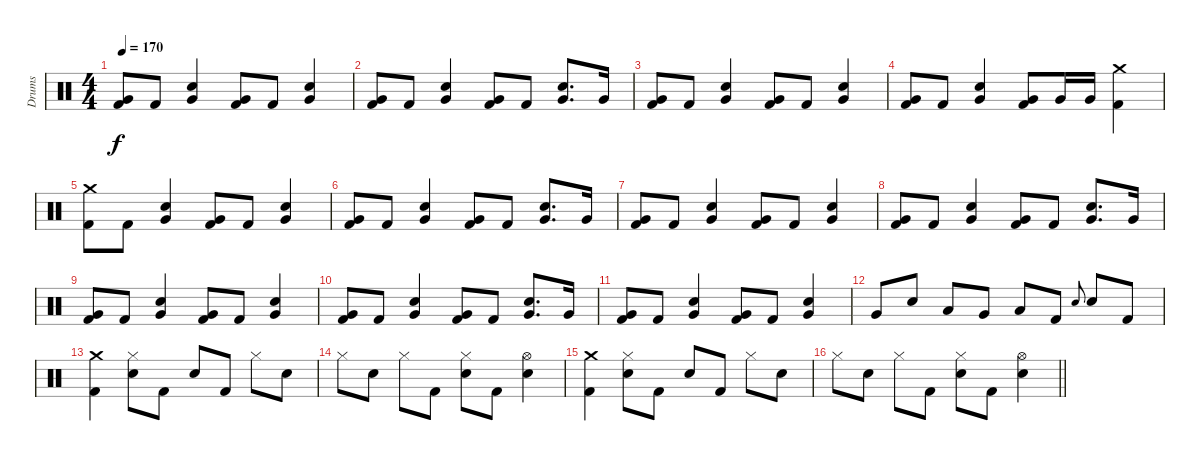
\track ("Drums" "Drums") {instrument percussion}
\staff {score}
\articulation defaults
\ts (4 4)
\tempo 170
\clef neutral
\ks c
("Very Low Tom (hit)" "Kick (hit) 2").8{dy f} "Kick (hit) 2".8 ("Snare (hit) 2" "Very Low Tom (hit)").4 ("Very Low Tom (hit)" "Kick (hit) 2").8 "Kick (hit) 2".8 ("Snare (hit) 2" "Very Low Tom (hit)").4 |
("Very Low Tom (hit)" "Kick (hit) 2").8 "Kick (hit) 2".8 ("Snare (hit) 2" "Very Low Tom (hit)").4 ("Very Low Tom (hit)" "Kick (hit) 2").8 "Kick (hit) 2".8 ("Snare (hit) 2" "Very Low Tom (hit)").8{d} "Very Low Tom (hit)".16 |
("Very Low Tom (hit)" "Kick (hit) 2").8 "Kick (hit) 2".8 ("Snare (hit) 2" "Very Low Tom (hit)").4 ("Very Low Tom (hit)" "Kick (hit) 2").8 "Kick (hit) 2".8 ("Snare (hit) 2" "Very Low Tom (hit)").4 |
("Very Low Tom (hit)" "Kick (hit) 2").8 "Kick (hit) 2".8 ("Snare (hit) 2" "Very Low Tom (hit)").4 ("Very Low Tom (hit)" "Kick (hit) 2").8 "Very Low Tom (hit)".16 "Very Low Tom (hit)".16 ("Crash medium (hit)" "Kick (hit) 2").4 |
("Crash medium (hit)" "Kick (hit) 2").8 "Kick (hit) 2".8 ("Snare (hit) 2" "Very Low Tom (hit)").4 ("Very Low Tom (hit)" "Kick (hit) 2").8 "Kick (hit) 2".8 ("Snare (hit) 2" "Very Low Tom (hit)").4 |
("Very Low Tom (hit)" "Kick (hit) 2").8 "Kick (hit) 2".8 ("Snare (hit) 2" "Very Low Tom (hit)").4 ("Very Low Tom (hit)" "Kick (hit) 2").8 "Kick (hit) 2".8 ("Snare (hit) 2" "Very Low Tom (hit)").8{d} "Very Low Tom (hit)".16 |
("Very Low Tom (hit)" "Kick (hit) 2").8 "Kick (hit) 2".8 ("Snare (hit) 2" "Very Low Tom (hit)").4 ("Very Low Tom (hit)" "Kick (hit) 2").8 "Kick (hit) 2".8 ("Snare (hit) 2" "Very Low Tom (hit)").4 |
("Very Low Tom (hit)" "Kick (hit) 2").8 "Kick (hit) 2".8 ("Snare (hit) 2" "Very Low Tom (hit)").4 ("Very Low Tom (hit)" "Kick (hit) 2").8 "Kick (hit) 2".8 ("Snare (hit) 2" "Very Low Tom (hit)").8{d} "Very Low Tom (hit)".16 |
("Very Low Tom (hit)" "Kick (hit) 2").8 "Kick (hit) 2".8 ("Snare (hit) 2" "Very Low Tom (hit)").4 ("Very Low Tom (hit)" "Kick (hit) 2").8 "Kick (hit) 2".8 ("Snare (hit) 2" "Very Low Tom (hit)").4 |
("Very Low Tom (hit)" "Kick (hit) 2").8 "Kick (hit) 2".8 ("Snare (hit) 2" "Very Low Tom (hit)").4 ("Very Low Tom (hit)" "Kick (hit) 2").8 "Kick (hit) 2".8 ("Snare (hit) 2" "Very Low Tom (hit)").8{d} "Very Low Tom (hit)".16 |
("Very Low Tom (hit)" "Kick (hit) 2").8 "Kick (hit) 2".8 ("Snare (hit) 2" "Very Low Tom (hit)").4 ("Very Low Tom (hit)" "Kick (hit) 2").8 "Kick (hit) 2".8 ("Snare (hit) 2" "Very Low Tom (hit)").4 |
"Very Low Tom (hit)".8 "Snare (hit) 2".8 "Low Tom (hit)".8 "Very Low Tom (hit)".8 "Low Floor Tom (hit)".8 "Kick (hit) 2".8 "Snare (hit) 2".8{gr onbeat} "Snare (hit) 2".8 "Kick (hit) 2".8 |
("Crash medium (hit)" "Kick (hit) 2").4 ("Hi-Hat (closed)" "Snare (hit) 2").8 "Kick (hit) 2".8 "Snare (hit) 2".8 "Kick (hit) 2".8 "Hi-Hat (closed)".8 "Snare (hit) 2".8 |
"Hi-Hat (closed)".8 "Snare (hit) 2".8 "Hi-Hat (closed)".8 "Kick (hit) 2".8 ("Hi-Hat (closed)" "Snare (hit) 2").8 "Kick (hit) 2".8 ("Hi-Hat (open)" "Snare (hit) 2").4 |
("Crash medium (hit)" "Kick (hit) 2").4 ("Hi-Hat (closed)" "Snare (hit) 2").8 "Kick (hit) 2".8 "Snare (hit) 2".8 "Kick (hit) 2".8 "Hi-Hat (closed)".8 "Snare (hit) 2".8 |
\barLineRight lightlight "Hi-Hat (closed)".8 "Snare (hit) 2".8 "Hi-Hat (closed)".8 "Kick (hit) 2".8
("Hi-Hat (closed)" "Snare (hit) 2").8 "Kick (hit) 2".8 ("Hi-Hat (open)" "Snare (hit) 2").4
